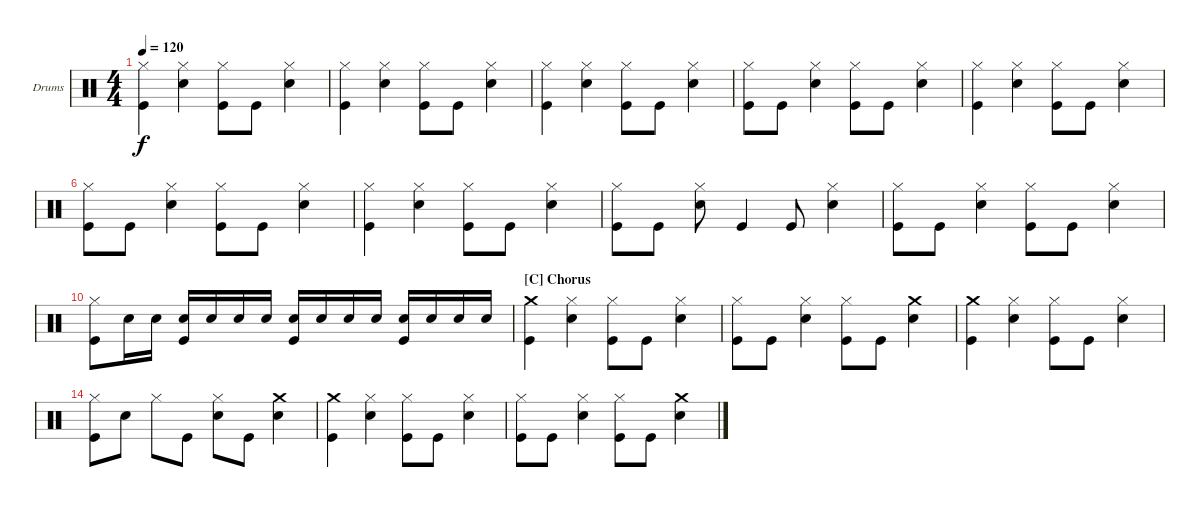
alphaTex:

\bracketExtendMode nobrackets
\firstSystemTrackNameOrientation horizontal
\otherSystemsTrackNameOrientation horizontal
\defaultBarNumberDisplay FirstOfSystem
\track ("Drumkit" "Drums") {instrument percussion}
\staff {score}
\articulation defaults
\ts (4 4)
\tempo 120
\clef neutral
\scale
0.240741
\ks c
("Hi-Hat (closed)" "Kick (hit)").4{dy f} ("Hi-Hat (closed)" "Snare (hit) 2").4 ("Hi-Hat (closed)" "Kick (hit)").8 "Kick (hit)".8 ("Hi-Hat (closed)" "Snare (hit) 2").4 |
\scale
0.240741 ("Hi-Hat (closed)" "Kick (hit)").4 ("Hi-Hat (closed)" "Snare (hit) 2").4 ("Hi-Hat (closed)" "Kick (hit)").8 "Kick (hit)".8 ("Hi-Hat (closed)" "Snare (hit) 2").4 |
\scale
0.264151 ("Hi-Hat (closed)" "Kick (hit)").4 ("Hi-Hat (closed)" "Snare (hit) 2").4 ("Hi-Hat (closed)" "Kick (hit)").8 "Kick (hit)".8 ("Hi-Hat (closed)" "Snare (hit) 2").4 |
\scale
0.245283 ("Hi-Hat (closed)" "Kick (hit)").8 "Kick (hit)".8 ("Hi-Hat (closed)" "Snare (hit) 2").4 ("Hi-Hat (closed)" "Kick (hit)").8 "Kick (hit)".8 ("Hi-Hat (closed)" "Snare (hit) 2").4 |
\scale
0.245283 ("Hi-Hat (closed)" "Kick (hit)").4 ("Hi-Hat (closed)" "Snare (hit) 2").4 ("Hi-Hat (closed)" "Kick (hit)").8 "Kick (hit)".8 ("Hi-Hat (closed)" "Snare (hit) 2").4 |
\scale
0.245283 ("Hi-Hat (closed)" "Kick (hit)").8 "Kick (hit)".8 ("Hi-Hat (closed)" "Snare (hit) 2").4 ("Hi-Hat (closed)" "Kick (hit)").8 "Kick (hit)".8 ("Hi-Hat (closed)" "Snare (hit) 2").4 |
\scale
0.197269 ("Hi-Hat (closed)" "Kick (hit)").4 ("Hi-Hat (closed)" "Snare (hit) 2").4 ("Hi-Hat (closed)" "Kick (hit)").8 "Kick (hit)".8 ("Hi-Hat (closed)" "Snare (hit) 2").4 |
\scale
0.227618 ("Hi-Hat (closed)" "Kick (hit)").8 "Kick (hit)".8 ("Hi-Hat (closed)" "Snare (hit) 2").8 "Kick (hit)".4 "Kick (hit)".8 ("Hi-Hat (closed)" "Snare (hit) 2").4 |
\scale
0.212443 ("Hi-Hat (closed)" "Kick (hit)").8 "Kick (hit)".8 ("Hi-Hat (closed)" "Snare (hit) 2").4 ("Hi-Hat (closed)" "Kick (hit)").8 "Kick (hit)".8 ("Hi-Hat (closed)" "Snare (hit) 2").4 |
\scale
0.362671 ("Hi-Hat (closed)" "Kick (hit)").8 "Snare (hit) 2".16 "Snare (hit) 2".16 ("Snare (hit) 2" "Kick (hit)").16 "Snare (hit) 2".16 "Snare (hit) 2".16 "Snare (hit) 2".16 ("Snare (hit) 2" "Kick (hit)").16 "Snare (hit) 2".16 "Snare (hit) 2".16 "Snare (hit) 2".16 ("Snare (hit) 2" "Kick (hit)").16 "Snare (hit) 2".16 "Snare (hit) 2".16 "Snare (hit) 2".16 |
\section ("C" "Chorus")
\scale
0.236364 ("Crash medium (hit)" "Kick (hit)").4 ("Hi-Hat (closed)" "Snare (hit) 2").4 ("Hi-Hat (closed)" "Kick (hit)").8 "Kick (hit)".8 ("Hi-Hat (closed)" "Snare (hit) 2").4 |
\scale
0.254545 ("Hi-Hat (closed)" "Kick (hit)").8 "Kick (hit)".8 ("Hi-Hat (closed)" "Snare (hit) 2").4 ("Hi-Hat (closed)" "Kick (hit)").8 "Kick (hit)".8 ("Crash medium (hit)" "Snare (hit) 2").4 |
\scale
0.236364 ("Crash medium (hit)" "Kick (hit)").4 ("Hi-Hat (closed)" "Snare (hit) 2").4 ("Hi-Hat (closed)" "Kick (hit)").8 "Kick (hit)".8 ("Hi-Hat (closed)" "Snare (hit) 2").4 |
\scale
0.272727 ("Hi-Hat (closed)" "Kick (hit)").8 "Snare (hit) 2".8 "Hi-Hat (closed)".8 "Kick (hit)".8 ("Hi-Hat (closed)" "Snare (hit) 2").8 "Kick (hit)".8 ("Crash medium (hit)" "Snare (hit) 2").4 |
\scale
0.240741 ("Crash medium (hit)" "Kick (hit)").4 ("Hi-Hat (closed)" "Snare (hit) 2").4 ("Hi-Hat (closed)" "Kick (hit)").8 "Kick (hit)".8 ("Hi-Hat (closed)" "Snare (hit) 2").4 |
\scale
0.259259 ("Hi-Hat (closed)" "Kick (hit)").8 "Kick (hit)".8 ("Hi-Hat (closed)" "Snare (hit) 2").4 ("Hi-Hat (closed)" "Kick (hit)").8 "Kick (hit)".8 ("Crash medium (hit)" "Snare (hit) 2").4
